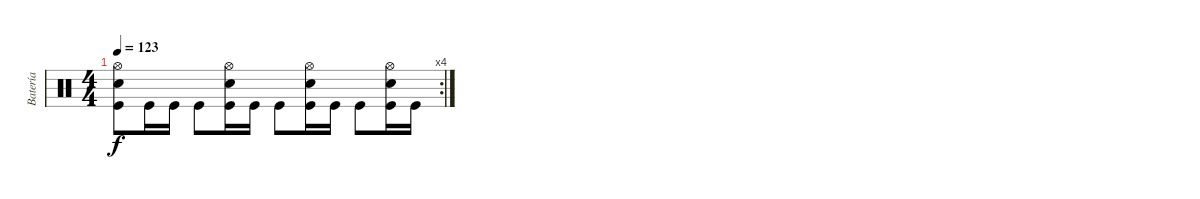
\track ("Batería" "Batería") {instrument percussion}
\staff {score}
\articulation defaults
\rc 4
\ts (4 4)
\tempo 123
\clef neutral
\ks c
("Hi-Hat (open)" "Snare (hit) 2" "Kick (hit)").8{dy f} "Kick (hit)".16 "Kick (hit)".16 "Kick (hit)".8 ("Hi-Hat (open)" "Snare (hit) 2" "Kick (hit)").16 "Kick (hit)".16 "Kick (hit)".8 ("Hi-Hat (open)" "Snare (hit) 2" "Kick (hit)").16 "Kick (hit)".16 "Kick (hit)".8 ("Hi-Hat (open)" "Snare (hit) 2" "Kick (hit)").16 "Kick (hit)".16
